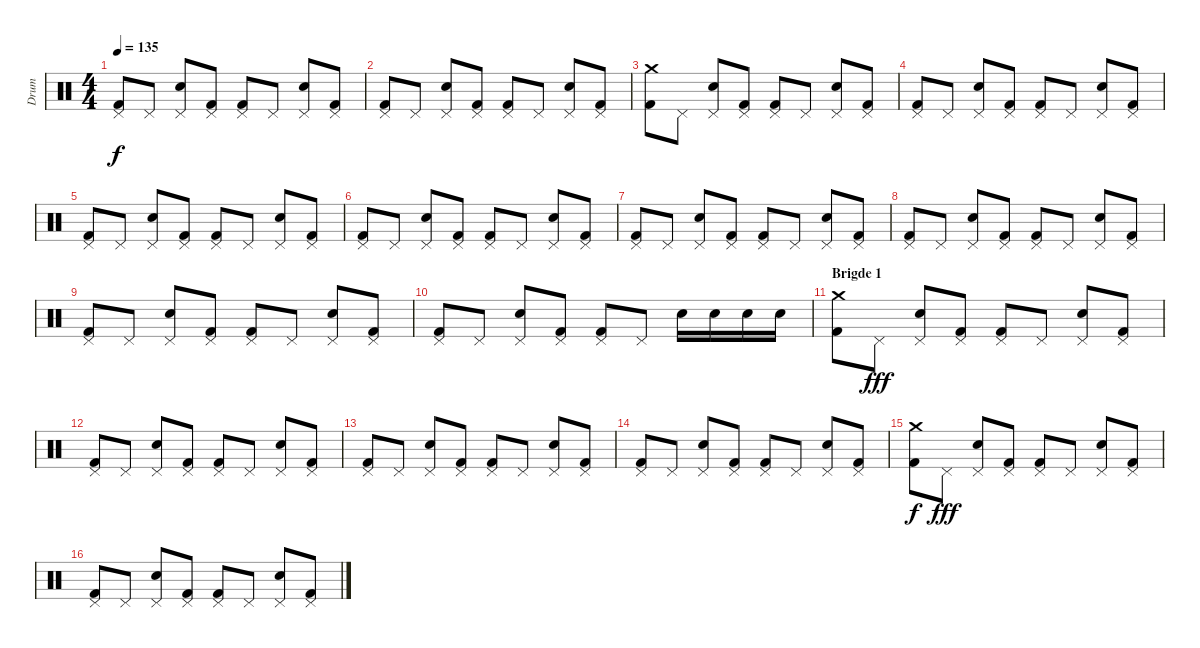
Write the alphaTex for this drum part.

\track ("Drum" "Drum") {instrument percussion}
\staff {score}
\articulation defaults
\ts (4 4)
\tempo 135
\clef neutral
\ks c
("Pedal Hi-Hat (hit)" "Kick (hit) 2").8{dy f} "Pedal Hi-Hat (hit)".8 ("Pedal Hi-Hat (hit)" "Snare (hit) 2").8 ("Pedal Hi-Hat (hit)" "Kick (hit) 2").8 ("Pedal Hi-Hat (hit)" "Kick (hit) 2").8 "Pedal Hi-Hat (hit)".8 ("Pedal Hi-Hat (hit)" "Snare (hit) 2").8 ("Pedal Hi-Hat (hit)" "Kick (hit) 2").8 |
("Pedal Hi-Hat (hit)" "Kick (hit) 2").8 "Pedal Hi-Hat (hit)".8 ("Pedal Hi-Hat (hit)" "Snare (hit) 2").8 ("Pedal Hi-Hat (hit)" "Kick (hit) 2").8 ("Pedal Hi-Hat (hit)" "Kick (hit) 2").8 "Pedal Hi-Hat (hit)".8 ("Pedal Hi-Hat (hit)" "Snare (hit) 2").8 ("Pedal Hi-Hat (hit)" "Kick (hit) 2").8 |
("Crash medium (hit)" "Kick (hit) 2").8 "Pedal Hi-Hat (hit)".8 ("Pedal Hi-Hat (hit)" "Snare (hit) 2").8 ("Pedal Hi-Hat (hit)" "Kick (hit) 2").8 ("Pedal Hi-Hat (hit)" "Kick (hit) 2").8 "Pedal Hi-Hat (hit)".8 ("Pedal Hi-Hat (hit)" "Snare (hit) 2").8 ("Pedal Hi-Hat (hit)" "Kick (hit) 2").8 |
("Pedal Hi-Hat (hit)" "Kick (hit) 2").8 "Pedal Hi-Hat (hit)".8 ("Pedal Hi-Hat (hit)" "Snare (hit) 2").8 ("Pedal Hi-Hat (hit)" "Kick (hit) 2").8 ("Pedal Hi-Hat (hit)" "Kick (hit) 2").8 "Pedal Hi-Hat (hit)".8 ("Pedal Hi-Hat (hit)" "Snare (hit) 2").8 ("Pedal Hi-Hat (hit)" "Kick (hit) 2").8 |
("Pedal Hi-Hat (hit)" "Kick (hit) 2").8 "Pedal Hi-Hat (hit)".8 ("Pedal Hi-Hat (hit)" "Snare (hit) 2").8 ("Pedal Hi-Hat (hit)" "Kick (hit) 2").8 ("Pedal Hi-Hat (hit)" "Kick (hit) 2").8 "Pedal Hi-Hat (hit)".8 ("Pedal Hi-Hat (hit)" "Snare (hit) 2").8 ("Pedal Hi-Hat (hit)" "Kick (hit) 2").8 |
("Pedal Hi-Hat (hit)" "Kick (hit) 2").8 "Pedal Hi-Hat (hit)".8 ("Pedal Hi-Hat (hit)" "Snare (hit) 2").8 ("Pedal Hi-Hat (hit)" "Kick (hit) 2").8 ("Pedal Hi-Hat (hit)" "Kick (hit) 2").8 "Pedal Hi-Hat (hit)".8 ("Pedal Hi-Hat (hit)" "Snare (hit) 2").8 ("Pedal Hi-Hat (hit)" "Kick (hit) 2").8 |
("Pedal Hi-Hat (hit)" "Kick (hit) 2").8 "Pedal Hi-Hat (hit)".8 ("Pedal Hi-Hat (hit)" "Snare (hit) 2").8 ("Pedal Hi-Hat (hit)" "Kick (hit) 2").8 ("Pedal Hi-Hat (hit)" "Kick (hit) 2").8 "Pedal Hi-Hat (hit)".8 ("Pedal Hi-Hat (hit)" "Snare (hit) 2").8 ("Pedal Hi-Hat (hit)" "Kick (hit) 2").8 |
("Pedal Hi-Hat (hit)" "Kick (hit) 2").8 "Pedal Hi-Hat (hit)".8 ("Pedal Hi-Hat (hit)" "Snare (hit) 2").8 ("Pedal Hi-Hat (hit)" "Kick (hit) 2").8 ("Pedal Hi-Hat (hit)" "Kick (hit) 2").8 "Pedal Hi-Hat (hit)".8 ("Pedal Hi-Hat (hit)" "Snare (hit) 2").8 ("Pedal Hi-Hat (hit)" "Kick (hit) 2").8 |
("Pedal Hi-Hat (hit)" "Kick (hit) 2").8 "Pedal Hi-Hat (hit)".8 ("Pedal Hi-Hat (hit)" "Snare (hit) 2").8 ("Pedal Hi-Hat (hit)" "Kick (hit) 2").8 ("Pedal Hi-Hat (hit)" "Kick (hit) 2").8 "Pedal Hi-Hat (hit)".8 ("Pedal Hi-Hat (hit)" "Snare (hit) 2").8 ("Pedal Hi-Hat (hit)" "Kick (hit) 2").8 |
("Pedal Hi-Hat (hit)" "Kick (hit) 2").8 "Pedal Hi-Hat (hit)".8 ("Pedal Hi-Hat (hit)" "Snare (hit) 2").8 ("Pedal Hi-Hat (hit)" "Kick (hit) 2").8 ("Pedal Hi-Hat (hit)" "Kick (hit) 2").8 "Pedal Hi-Hat (hit)".8 "Snare (hit) 2".16 "Snare (hit) 2".16 "Snare (hit) 2".16 "Snare (hit) 2".16 |
\section ("" "Brigde 1")
("Crash medium (hit)" "Kick (hit) 2").8 "Pedal Hi-Hat (hit)".8{dy fff} ("Pedal Hi-Hat (hit)" "Snare (hit) 2").8 ("Pedal Hi-Hat (hit)" "Kick (hit) 2").8 ("Pedal Hi-Hat (hit)" "Kick (hit) 2").8 "Pedal Hi-Hat (hit)".8 ("Pedal Hi-Hat (hit)" "Snare (hit) 2").8 ("Pedal Hi-Hat (hit)" "Kick (hit) 2").8 |
("Pedal Hi-Hat (hit)" "Kick (hit) 2").8 "Pedal Hi-Hat (hit)".8 ("Pedal Hi-Hat (hit)" "Snare (hit) 2").8 ("Pedal Hi-Hat (hit)" "Kick (hit) 2").8 ("Pedal Hi-Hat (hit)" "Kick (hit) 2").8 "Pedal Hi-Hat (hit)".8 ("Pedal Hi-Hat (hit)" "Snare (hit) 2").8 ("Pedal Hi-Hat (hit)" "Kick (hit) 2").8 |
("Pedal Hi-Hat (hit)" "Kick (hit) 2").8 "Pedal Hi-Hat (hit)".8 ("Pedal Hi-Hat (hit)" "Snare (hit) 2").8 ("Pedal Hi-Hat (hit)" "Kick (hit) 2").8 ("Pedal Hi-Hat (hit)" "Kick (hit) 2").8 "Pedal Hi-Hat (hit)".8 ("Pedal Hi-Hat (hit)" "Snare (hit) 2").8 ("Pedal Hi-Hat (hit)" "Kick (hit) 2").8 |
("Pedal Hi-Hat (hit)" "Kick (hit) 2").8 "Pedal Hi-Hat (hit)".8 ("Pedal Hi-Hat (hit)" "Snare (hit) 2").8 ("Pedal Hi-Hat (hit)" "Kick (hit) 2").8 ("Pedal Hi-Hat (hit)" "Kick (hit) 2").8 "Pedal Hi-Hat (hit)".8 ("Pedal Hi-Hat (hit)" "Snare (hit) 2").8 ("Pedal Hi-Hat (hit)" "Kick (hit) 2").8 |
("Crash medium (hit)" "Kick (hit) 2").8{dy f} "Pedal Hi-Hat (hit)".8{dy fff} ("Pedal Hi-Hat (hit)" "Snare (hit) 2").8 ("Pedal Hi-Hat (hit)" "Kick (hit) 2").8 ("Pedal Hi-Hat (hit)" "Kick (hit) 2").8 "Pedal Hi-Hat (hit)".8 ("Pedal Hi-Hat (hit)" "Snare (hit) 2").8 ("Pedal Hi-Hat (hit)" "Kick (hit) 2").8 |
("Pedal Hi-Hat (hit)" "Kick (hit) 2").8 "Pedal Hi-Hat (hit)".8 ("Pedal Hi-Hat (hit)" "Snare (hit) 2").8 ("Pedal Hi-Hat (hit)" "Kick (hit) 2").8 ("Pedal Hi-Hat (hit)" "Kick (hit) 2").8 "Pedal Hi-Hat (hit)".8 ("Pedal Hi-Hat (hit)" "Snare (hit) 2").8 ("Pedal Hi-Hat (hit)" "Kick (hit) 2").8
